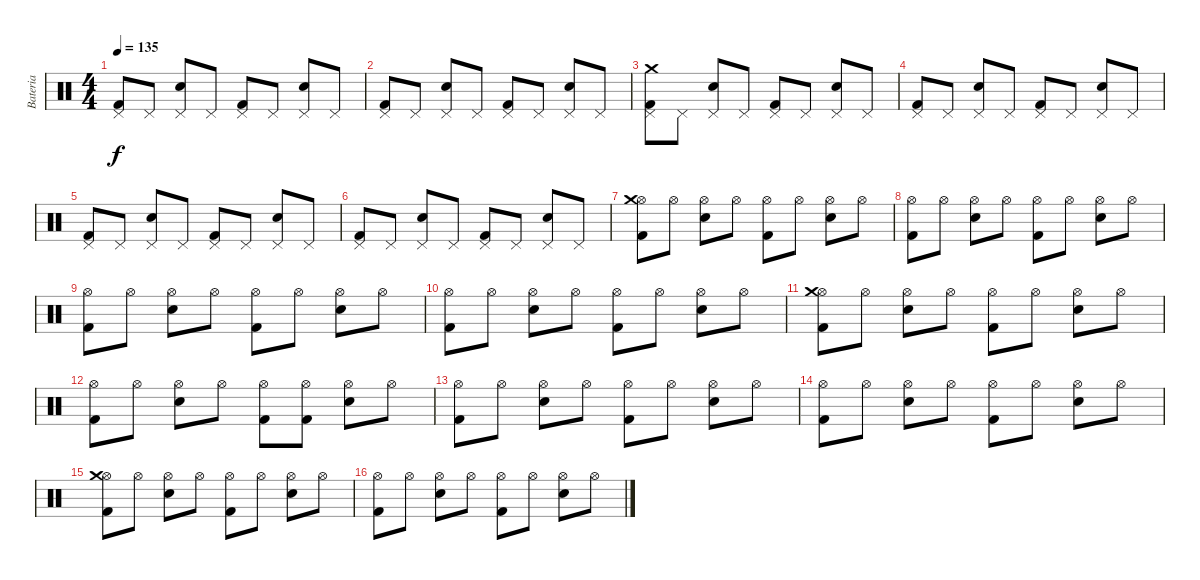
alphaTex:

\track ("Bateria" "Bateria") {instrument percussion}
\staff {score}
\articulation defaults
\ts (4 4)
\tempo 135
\clef neutral
\ks c
("Kick (hit) 2" "Pedal Hi-Hat (hit)").8{dy f} "Pedal Hi-Hat (hit)".8 ("Electric Snare (hit)" "Pedal Hi-Hat (hit)").8 "Pedal Hi-Hat (hit)".8 ("Kick (hit) 2" "Pedal Hi-Hat (hit)").8 "Pedal Hi-Hat (hit)".8 ("Electric Snare (hit)" "Pedal Hi-Hat (hit)").8 "Pedal Hi-Hat (hit)".8 |
("Kick (hit) 2" "Pedal Hi-Hat (hit)").8 "Pedal Hi-Hat (hit)".8 ("Electric Snare (hit)" "Pedal Hi-Hat (hit)").8 "Pedal Hi-Hat (hit)".8 ("Kick (hit) 2" "Pedal Hi-Hat (hit)").8 "Pedal Hi-Hat (hit)".8 ("Electric Snare (hit)" "Pedal Hi-Hat (hit)").8 "Pedal Hi-Hat (hit)".8 |
("Kick (hit) 2" "Pedal Hi-Hat (hit)" "Crash medium (hit)").8 "Pedal Hi-Hat (hit)".8 ("Electric Snare (hit)" "Pedal Hi-Hat (hit)").8 "Pedal Hi-Hat (hit)".8 ("Kick (hit) 2" "Pedal Hi-Hat (hit)").8 "Pedal Hi-Hat (hit)".8 ("Electric Snare (hit)" "Pedal Hi-Hat (hit)").8 "Pedal Hi-Hat (hit)".8 |
("Kick (hit) 2" "Pedal Hi-Hat (hit)").8 "Pedal Hi-Hat (hit)".8 ("Electric Snare (hit)" "Pedal Hi-Hat (hit)").8 "Pedal Hi-Hat (hit)".8 ("Kick (hit) 2" "Pedal Hi-Hat (hit)").8 "Pedal Hi-Hat (hit)".8 ("Electric Snare (hit)" "Pedal Hi-Hat (hit)").8 "Pedal Hi-Hat (hit)".8 |
("Kick (hit) 2" "Pedal Hi-Hat (hit)").8 "Pedal Hi-Hat (hit)".8 ("Electric Snare (hit)" "Pedal Hi-Hat (hit)").8 "Pedal Hi-Hat (hit)".8 ("Kick (hit) 2" "Pedal Hi-Hat (hit)").8 "Pedal Hi-Hat (hit)".8 ("Electric Snare (hit)" "Pedal Hi-Hat (hit)").8 "Pedal Hi-Hat (hit)".8 |
("Kick (hit) 2" "Pedal Hi-Hat (hit)").8 "Pedal Hi-Hat (hit)".8 ("Electric Snare (hit)" "Pedal Hi-Hat (hit)").8 "Pedal Hi-Hat (hit)".8 ("Kick (hit) 2" "Pedal Hi-Hat (hit)").8 "Pedal Hi-Hat (hit)".8 ("Electric Snare (hit)" "Pedal Hi-Hat (hit)").8 "Pedal Hi-Hat (hit)".8 |
("Kick (hit) 2" "Hi-Hat (open)" "Crash medium (hit)").8 "Hi-Hat (open)".8 ("Electric Snare (hit)" "Hi-Hat (open)").8 "Hi-Hat (open)".8 ("Kick (hit) 2" "Hi-Hat (open)").8 "Hi-Hat (open)".8 ("Electric Snare (hit)" "Hi-Hat (open)").8 "Hi-Hat (open)".8 |
("Kick (hit) 2" "Hi-Hat (open)").8 "Hi-Hat (open)".8 ("Electric Snare (hit)" "Hi-Hat (open)").8 "Hi-Hat (open)".8 ("Kick (hit) 2" "Hi-Hat (open)").8 "Hi-Hat (open)".8 ("Electric Snare (hit)" "Hi-Hat (open)").8 "Hi-Hat (open)".8 |
("Kick (hit) 2" "Hi-Hat (open)").8 "Hi-Hat (open)".8 ("Electric Snare (hit)" "Hi-Hat (open)").8 "Hi-Hat (open)".8 ("Kick (hit) 2" "Hi-Hat (open)").8 "Hi-Hat (open)".8 ("Electric Snare (hit)" "Hi-Hat (open)").8 "Hi-Hat (open)".8 |
("Kick (hit) 2" "Hi-Hat (open)").8 "Hi-Hat (open)".8 ("Electric Snare (hit)" "Hi-Hat (open)").8 "Hi-Hat (open)".8 ("Kick (hit) 2" "Hi-Hat (open)").8 "Hi-Hat (open)".8 ("Electric Snare (hit)" "Hi-Hat (open)").8 "Hi-Hat (open)".8 |
("Kick (hit) 2" "Hi-Hat (open)" "Crash medium (hit)").8 "Hi-Hat (open)".8 ("Electric Snare (hit)" "Hi-Hat (open)").8 "Hi-Hat (open)".8 ("Kick (hit) 2" "Hi-Hat (open)").8 "Hi-Hat (open)".8 ("Electric Snare (hit)" "Hi-Hat (open)").8 "Hi-Hat (open)".8 |
("Kick (hit) 2" "Hi-Hat (open)").8 "Hi-Hat (open)".8 ("Electric Snare (hit)" "Hi-Hat (open)").8 "Hi-Hat (open)".8 ("Kick (hit) 2" "Hi-Hat (open)").8 ("Kick (hit) 2" "Hi-Hat (open)").8 ("Electric Snare (hit)" "Hi-Hat (open)").8 "Hi-Hat (open)".8 |
("Kick (hit) 2" "Hi-Hat (open)").8 "Hi-Hat (open)".8 ("Electric Snare (hit)" "Hi-Hat (open)").8 "Hi-Hat (open)".8 ("Kick (hit) 2" "Hi-Hat (open)").8 "Hi-Hat (open)".8 ("Electric Snare (hit)" "Hi-Hat (open)").8 "Hi-Hat (open)".8 |
("Kick (hit) 2" "Hi-Hat (open)").8 "Hi-Hat (open)".8 ("Electric Snare (hit)" "Hi-Hat (open)").8 "Hi-Hat (open)".8 ("Kick (hit) 2" "Hi-Hat (open)").8 "Hi-Hat (open)".8 ("Electric Snare (hit)" "Hi-Hat (open)").8 "Hi-Hat (open)".8 |
("Kick (hit) 2" "Hi-Hat (open)" "Crash medium (hit)").8 "Hi-Hat (open)".8 ("Electric Snare (hit)" "Hi-Hat (open)").8 "Hi-Hat (open)".8 ("Kick (hit) 2" "Hi-Hat (open)").8 "Hi-Hat (open)".8 ("Electric Snare (hit)" "Hi-Hat (open)").8 "Hi-Hat (open)".8 |
("Kick (hit) 2" "Hi-Hat (open)").8 "Hi-Hat (open)".8 ("Electric Snare (hit)" "Hi-Hat (open)").8 "Hi-Hat (open)".8 ("Kick (hit) 2" "Hi-Hat (open)").8 "Hi-Hat (open)".8 ("Electric Snare (hit)" "Hi-Hat (open)").8 "Hi-Hat (open)".8
